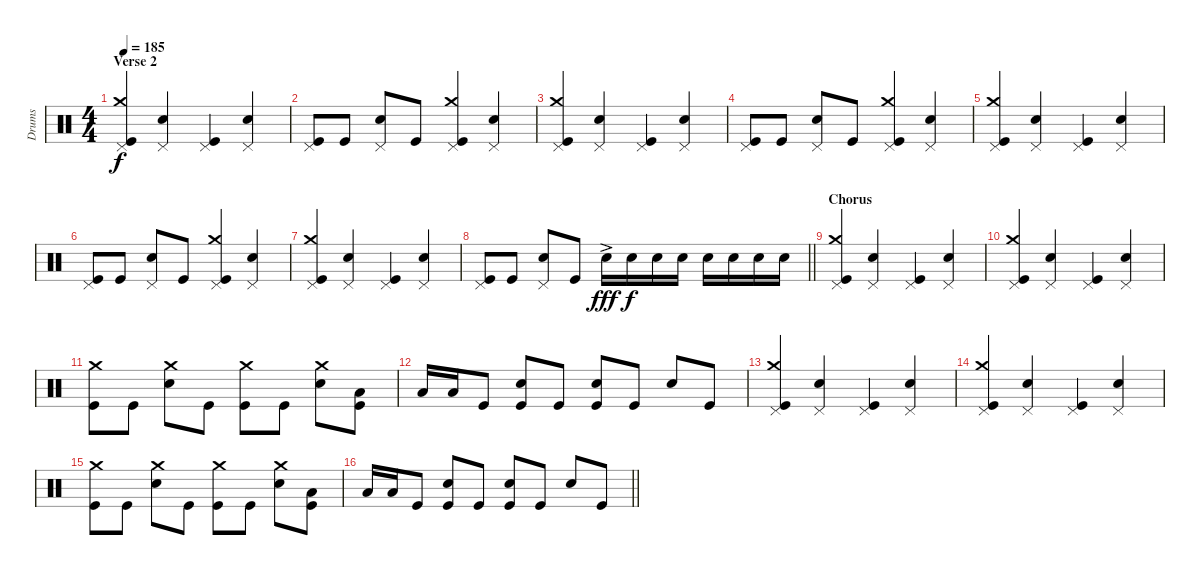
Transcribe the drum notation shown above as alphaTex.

\track ("Drums" "Drums") {instrument percussion}
\staff {score}
\articulation defaults
\ts (4 4)
\section ("" "Verse 2")
\tempo 185
\clef neutral
\ks c
("Pedal Hi-Hat (hit)" "Crash medium (hit)" "Kick (hit)").4{dy f} ("Pedal Hi-Hat (hit)" "Snare (hit) 2").4 ("Pedal Hi-Hat (hit)" "Kick (hit)").4 ("Pedal Hi-Hat (hit)" "Snare (hit) 2").4 |
("Pedal Hi-Hat (hit)" "Kick (hit)").8 "Kick (hit)".8 ("Pedal Hi-Hat (hit)" "Snare (hit) 2").8 "Kick (hit)".8 ("Pedal Hi-Hat (hit)" "Crash medium (hit)" "Kick (hit)").4 ("Pedal Hi-Hat (hit)" "Snare (hit) 2").4 |
("Pedal Hi-Hat (hit)" "Crash medium (hit)" "Kick (hit)").4 ("Pedal Hi-Hat (hit)" "Snare (hit) 2").4 ("Pedal Hi-Hat (hit)" "Kick (hit)").4 ("Pedal Hi-Hat (hit)" "Snare (hit) 2").4 |
("Pedal Hi-Hat (hit)" "Kick (hit)").8 "Kick (hit)".8 ("Pedal Hi-Hat (hit)" "Snare (hit) 2").8 "Kick (hit)".8 ("Pedal Hi-Hat (hit)" "Crash medium (hit)" "Kick (hit)").4 ("Pedal Hi-Hat (hit)" "Snare (hit) 2").4 |
("Pedal Hi-Hat (hit)" "Crash medium (hit)" "Kick (hit)").4 ("Pedal Hi-Hat (hit)" "Snare (hit) 2").4 ("Pedal Hi-Hat (hit)" "Kick (hit)").4 ("Pedal Hi-Hat (hit)" "Snare (hit) 2").4 |
("Pedal Hi-Hat (hit)" "Kick (hit)").8 "Kick (hit)".8 ("Pedal Hi-Hat (hit)" "Snare (hit) 2").8 "Kick (hit)".8 ("Pedal Hi-Hat (hit)" "Crash medium (hit)" "Kick (hit)").4 ("Pedal Hi-Hat (hit)" "Snare (hit) 2").4 |
("Pedal Hi-Hat (hit)" "Crash medium (hit)" "Kick (hit)").4 ("Pedal Hi-Hat (hit)" "Snare (hit) 2").4 ("Pedal Hi-Hat (hit)" "Kick (hit)").4 ("Pedal Hi-Hat (hit)" "Snare (hit) 2").4 |
\barLineRight lightlight
("Pedal Hi-Hat (hit)" "Kick (hit)").8 "Kick (hit)".8 ("Pedal Hi-Hat (hit)" "Snare (hit) 2").8 "Kick (hit)".8 "Snare (hit) 2"{ac}.16{dy fff} "Snare (hit) 2".16{dy f} "Snare (hit) 2".16 "Snare (hit) 2".16 "Snare (hit) 2".16 "Snare (hit) 2".16 "Snare (hit) 2".16 "Snare (hit) 2".16 |
\section ("" "Chorus")
("Pedal Hi-Hat (hit)" "Crash medium (hit)" "Kick (hit)").4 ("Pedal Hi-Hat (hit)" "Snare (hit) 2").4 ("Pedal Hi-Hat (hit)" "Kick (hit)").4 ("Pedal Hi-Hat (hit)" "Snare (hit) 2").4 |
("Pedal Hi-Hat (hit)" "Crash medium (hit)" "Kick (hit)").4 ("Pedal Hi-Hat (hit)" "Snare (hit) 2").4 ("Pedal Hi-Hat (hit)" "Kick (hit)").4 ("Pedal Hi-Hat (hit)" "Snare (hit) 2").4 |
("Crash medium (hit)" "Kick (hit)").8 "Kick (hit)".8 ("Crash medium (hit)" "Snare (hit) 2").8 "Kick (hit)".8 ("Crash medium (hit)" "Kick (hit)").8 "Kick (hit)".8 ("Crash medium (hit)" "Snare (hit) 2").8 ("Low Tom (hit)" "Kick (hit)").8 |
"Low Tom (hit)".16 "Low Tom (hit)".16 "Kick (hit)".8 ("Snare (hit) 2" "Kick (hit)").8 "Kick (hit)".8 ("Snare (hit) 2" "Kick (hit)").8 "Kick (hit)".8 "Snare (hit) 2".8 "Kick (hit)".8 |
("Pedal Hi-Hat (hit)" "Crash medium (hit)" "Kick (hit)").4 ("Pedal Hi-Hat (hit)" "Snare (hit) 2").4 ("Pedal Hi-Hat (hit)" "Kick (hit)").4 ("Pedal Hi-Hat (hit)" "Snare (hit) 2").4 |
("Pedal Hi-Hat (hit)" "Crash medium (hit)" "Kick (hit)").4 ("Pedal Hi-Hat (hit)" "Snare (hit) 2").4 ("Pedal Hi-Hat (hit)" "Kick (hit)").4 ("Pedal Hi-Hat (hit)" "Snare (hit) 2").4 |
("Crash medium (hit)" "Kick (hit)").8 "Kick (hit)".8 ("Crash medium (hit)" "Snare (hit) 2").8 "Kick (hit)".8 ("Crash medium (hit)" "Kick (hit)").8 "Kick (hit)".8 ("Crash medium (hit)" "Snare (hit) 2").8 ("Low Tom (hit)" "Kick (hit)").8 |
\barLineRight lightlight "Low Tom (hit)".16 "Low Tom (hit)".16 "Kick (hit)".8
("Snare (hit) 2" "Kick (hit)").8 "Kick (hit)".8 ("Snare (hit) 2" "Kick (hit)").8 "Kick (hit)".8 "Snare (hit) 2".8 "Kick (hit)".8
